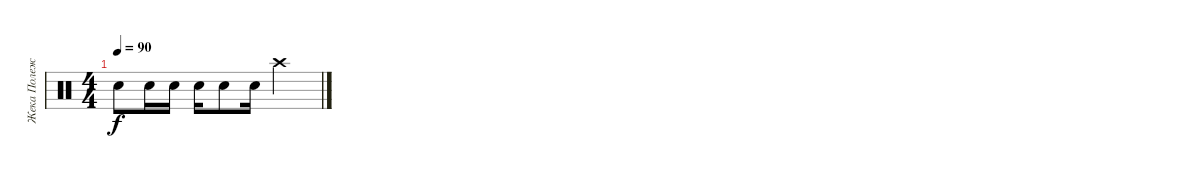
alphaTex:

\track ("Жека Полежаев" "Жека Полеж") {instrument percussion}
\staff {score}
\articulation defaults
\ts (4 4)
\tempo 90
\clef neutral
\ks c "Snare (hit) 2".8{dy f} "Snare (hit) 2".16 "Snare (hit) 2".16 "Snare (hit) 2".16 "Snare (hit) 2".8 "Snare (hit) 2".16 "Crash high (hit)".2
